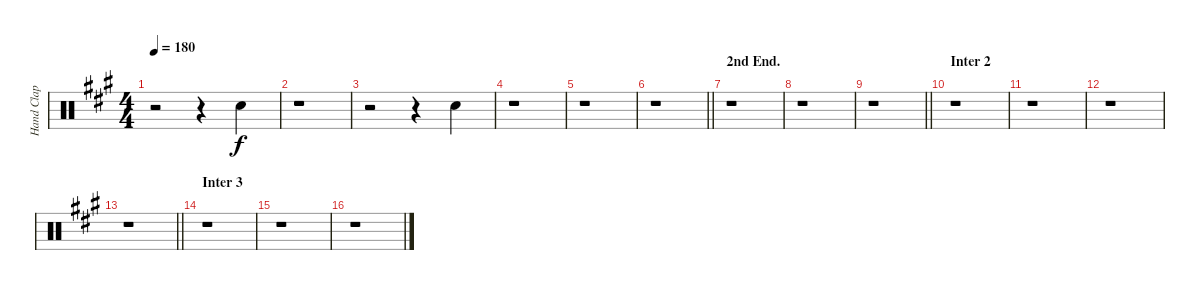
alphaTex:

\track ("Hand Clap" "Hand Clap") {instrument percussion}
\staff {score}
\articulation defaults
\ts (4 4)
\tempo 180
\clef neutral
\ks a
r.2{dy f} r.4 "Hand Clap (hit)".4 |
r.1 |
r.2 r.4 "Hand Clap (hit)".4 |
r.1 |
r.1 |
\barLineRight lightlight
r.1 |
\section ("" "2nd End.")
r.1 |
r.1 |
\barLineRight lightlight
r.1 |
\section ("" "Inter 2")
r.1 |
r.1 |
r.1 |
\barLineRight lightlight
r.1 |
\section ("" "Inter 3")
r.1 |
r.1 |
r.1
